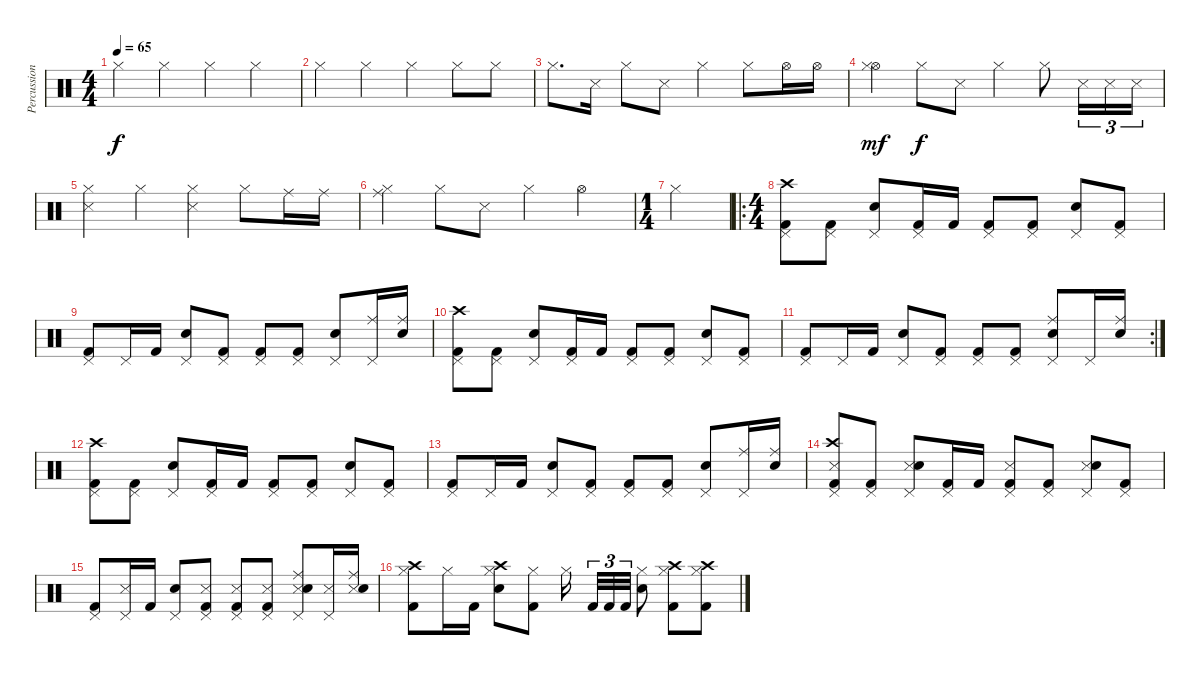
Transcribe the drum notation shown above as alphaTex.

\track ("Percussion" "Percussion") {instrument percussion}
\staff {score}
\articulation defaults
\ts (4 4)
\tempo 65
\clef neutral
\ks c "Hi-Hat (closed)".4{dy f} "Hi-Hat (closed)".4 "Hi-Hat (closed)".4 "Hi-Hat (closed)".4
|
"Hi-Hat (closed)".4 "Hi-Hat (closed)".4 "Hi-Hat (closed)".4 "Hi-Hat (closed)".8 "Hi-Hat (closed)".8 |
"Hi-Hat (closed)".8{d} "Snare (side stick) 3".16 "Hi-Hat (closed)".8 "Snare (side stick) 3".8 "Hi-Hat (closed)".4 "Hi-Hat (closed)".8 "Hi-Hat (open)".16 "Hi-Hat (open)".16 |
("Hi-Hat (open)" "Hi-Hat (closed)").4{dy mf} "Hi-Hat (closed)".8{dy f} "Snare (side stick) 3".8 "Hi-Hat (closed)".4 "Hi-Hat (closed)".8 "Snare (side stick) 3".16{tu (3 2)} "Snare (side stick) 3".16{tu (3 2)} "Snare (side stick) 3".16{tu (3 2)} |
("Snare (side stick) 3" "Hi-Hat (closed)").4 "Hi-Hat (closed)".4 ("Snare (side stick) 3" "Hi-Hat (closed)").4 "Hi-Hat (closed)".8 "Ride (middle)".16 "Ride (middle)".16 |
("Ride (middle)" "Hi-Hat (closed)").4 "Hi-Hat (closed)".8 "Snare (side stick) 3".8 "Hi-Hat (closed)".4 "Hi-Hat (open)".4 |
\ts (1 4)
"Hi-Hat (closed)".4 |
\ro
\ts (4 4)
("Crash high (hit)" "Pedal Hi-Hat (hit)" "Kick (hit) 2").8 ("Pedal Hi-Hat (hit)" "Kick (hit) 2").8 ("Pedal Hi-Hat (hit)" "Electric Snare (hit)").8 ("Pedal Hi-Hat (hit)" "Kick (hit) 2").16 "Kick (hit) 2".16 ("Pedal Hi-Hat (hit)" "Kick (hit) 2").8 ("Pedal Hi-Hat (hit)" "Kick (hit) 2").8 ("Pedal Hi-Hat (hit)" "Electric Snare (hit)").8 ("Pedal Hi-Hat (hit)" "Kick (hit) 2").8 |
("Pedal Hi-Hat (hit)" "Kick (hit) 2").8 "Pedal Hi-Hat (hit)".16 "Kick (hit) 2".16 ("Pedal Hi-Hat (hit)" "Electric Snare (hit)").8 ("Pedal Hi-Hat (hit)" "Kick (hit) 2").8 ("Pedal Hi-Hat (hit)" "Kick (hit) 2").8 ("Pedal Hi-Hat (hit)" "Kick (hit) 2").8 ("Pedal Hi-Hat (hit)" "Electric Snare (hit)").8 ("Ride (middle)" "Pedal Hi-Hat (hit)").16 ("Ride (middle)" "Electric Snare (hit)").16 |
("Crash high (hit)" "Pedal Hi-Hat (hit)" "Kick (hit) 2").8 ("Pedal Hi-Hat (hit)" "Kick (hit) 2").8 ("Pedal Hi-Hat (hit)" "Electric Snare (hit)").8 ("Pedal Hi-Hat (hit)" "Kick (hit) 2").16 "Kick (hit) 2".16 ("Pedal Hi-Hat (hit)" "Kick (hit) 2").8 ("Pedal Hi-Hat (hit)" "Kick (hit) 2").8 ("Pedal Hi-Hat (hit)" "Electric Snare (hit)").8 ("Pedal Hi-Hat (hit)" "Kick (hit) 2").8 |
\rc 2
("Pedal Hi-Hat (hit)" "Kick (hit) 2").8 "Pedal Hi-Hat (hit)".16 "Kick (hit) 2".16 ("Pedal Hi-Hat (hit)" "Electric Snare (hit)").8 ("Pedal Hi-Hat (hit)" "Kick (hit) 2").8 ("Pedal Hi-Hat (hit)" "Kick (hit) 2").8 ("Pedal Hi-Hat (hit)" "Kick (hit) 2").8 ("Ride (middle)" "Pedal Hi-Hat (hit)" "Electric Snare (hit)").8 "Pedal Hi-Hat (hit)".16 ("Ride (middle)" "Electric Snare (hit)").16 |
("Crash high (hit)" "Pedal Hi-Hat (hit)" "Kick (hit) 2").8 ("Pedal Hi-Hat (hit)" "Kick (hit) 2").8 ("Pedal Hi-Hat (hit)" "Electric Snare (hit)").8 ("Pedal Hi-Hat (hit)" "Kick (hit) 2").16 "Kick (hit) 2".16 ("Pedal Hi-Hat (hit)" "Kick (hit) 2").8 ("Pedal Hi-Hat (hit)" "Kick (hit) 2").8 ("Pedal Hi-Hat (hit)" "Electric Snare (hit)").8 ("Pedal Hi-Hat (hit)" "Kick (hit) 2").8 |
("Pedal Hi-Hat (hit)" "Kick (hit) 2").8 "Pedal Hi-Hat (hit)".16 "Kick (hit) 2".16 ("Pedal Hi-Hat (hit)" "Electric Snare (hit)").8 ("Pedal Hi-Hat (hit)" "Kick (hit) 2").8 ("Pedal Hi-Hat (hit)" "Kick (hit) 2").8 ("Pedal Hi-Hat (hit)" "Kick (hit) 2").8 ("Pedal Hi-Hat (hit)" "Electric Snare (hit)").8 ("Ride (middle)" "Pedal Hi-Hat (hit)").16 ("Ride (middle)" "Electric Snare (hit)").16 |
("Crash high (hit)" "Pedal Hi-Hat (hit)" "Snare (side stick) 3" "Kick (hit) 2").8 ("Pedal Hi-Hat (hit)" "Kick (hit) 2").8 ("Pedal Hi-Hat (hit)" "Snare (side stick) 3" "Electric Snare (hit)").8 ("Pedal Hi-Hat (hit)" "Kick (hit) 2").16 "Kick (hit) 2".16 ("Pedal Hi-Hat (hit)" "Snare (side stick) 3" "Kick (hit) 2").8 ("Pedal Hi-Hat (hit)" "Kick (hit) 2").8 ("Pedal Hi-Hat (hit)" "Snare (side stick) 3" "Electric Snare (hit)").8 ("Pedal Hi-Hat (hit)" "Kick (hit) 2").8 |
("Pedal Hi-Hat (hit)" "Kick (hit) 2").8 ("Pedal Hi-Hat (hit)" "Snare (side stick) 3").16 "Kick (hit) 2".16 ("Pedal Hi-Hat (hit)" "Electric Snare (hit)").8 ("Pedal Hi-Hat (hit)" "Snare (side stick) 3" "Kick (hit) 2").8 ("Pedal Hi-Hat (hit)" "Snare (side stick) 3" "Kick (hit) 2").8 ("Pedal Hi-Hat (hit)" "Snare (side stick) 3" "Kick (hit) 2").8 ("Ride (middle)" "Pedal Hi-Hat (hit)" "Snare (side stick) 3" "Electric Snare (hit)").8 ("Pedal Hi-Hat (hit)" "Snare (side stick) 3").16 ("Ride (middle)" "Snare (side stick) 3" "Electric Snare (hit)").16 |
("Crash high (hit)" "Hi-Hat (closed)" "Kick (hit) 2").8 "Hi-Hat (closed)".16 "Kick (hit) 2".16 ("Crash high (hit)" "Hi-Hat (closed)" "Electric Snare (hit)").8 ("Hi-Hat (closed)" "Kick (hit) 2").8 "Hi-Hat (closed)".16 "Kick (hit) 2".32{tu (3 2)} "Kick (hit) 2".32{tu (3 2)} "Kick (hit) 2".32{tu (3 2)} ("Hi-Hat (closed)" "Electric Snare (hit)").8 ("Crash high (hit)" "Hi-Hat (closed)" "Kick (hit) 2").8 ("Crash high (hit)" "Hi-Hat (closed)" "Kick (hit) 2").8
